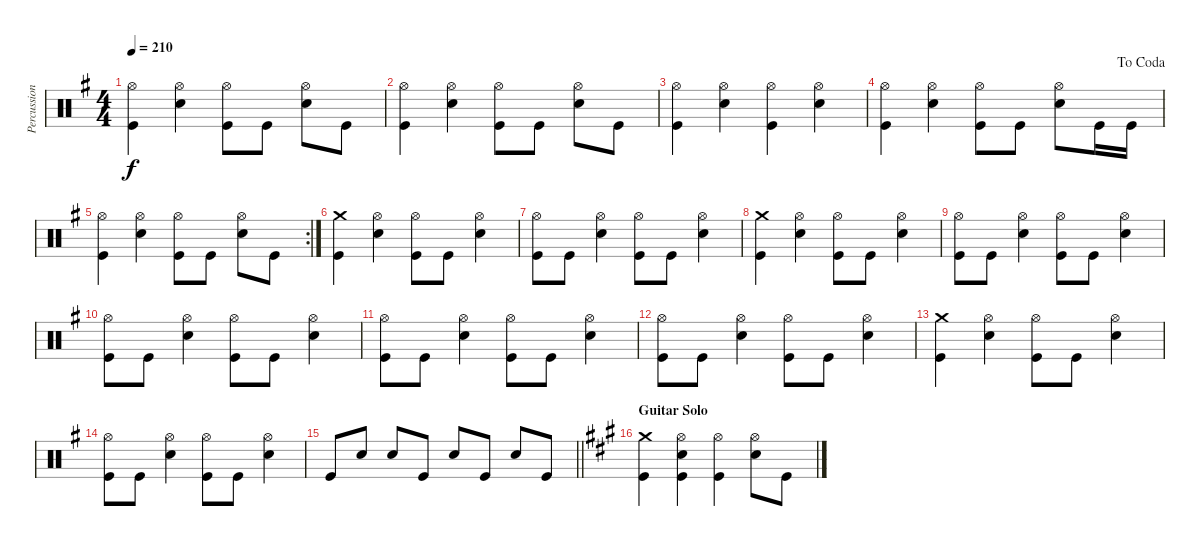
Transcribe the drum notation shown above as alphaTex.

\track ("Percussion" "Percussion") {instrument percussion}
\staff {score}
\articulation defaults
\ts (4 4)
\tempo 210
\clef neutral
\ks g
("Hi-Hat (open)" "Kick (hit)").4{dy f} ("Hi-Hat (open)" "Snare (hit) 2").4 ("Hi-Hat (open)" "Kick (hit)").8 "Kick (hit)".8 ("Hi-Hat (open)" "Snare (hit) 2").8 "Kick (hit)".8 |
("Hi-Hat (open)" "Kick (hit)").4 ("Hi-Hat (open)" "Snare (hit) 2").4 ("Hi-Hat (open)" "Kick (hit)").8 "Kick (hit)".8 ("Hi-Hat (open)" "Snare (hit) 2").8 "Kick (hit)".8 |
("Hi-Hat (open)" "Kick (hit)").4 ("Hi-Hat (open)" "Snare (hit) 2").4 ("Hi-Hat (open)" "Kick (hit)").4 ("Hi-Hat (open)" "Snare (hit) 2").4 |
\jump dacoda
("Hi-Hat (open)" "Kick (hit)").4 ("Hi-Hat (open)" "Snare (hit) 2").4 ("Hi-Hat (open)" "Kick (hit)").8 "Kick (hit)".8 ("Hi-Hat (open)" "Snare (hit) 2").8 "Kick (hit)".16 "Kick (hit)".16 |
\rc 2
("Hi-Hat (open)" "Kick (hit)").4 ("Hi-Hat (open)" "Snare (hit) 2").4 ("Hi-Hat (open)" "Kick (hit)").8 "Kick (hit)".8 ("Hi-Hat (open)" "Snare (hit) 2").8 "Kick (hit)".8 |
("Crash medium (hit)" "Kick (hit)").4 ("Hi-Hat (open)" "Snare (hit) 2").4 ("Hi-Hat (open)" "Kick (hit)").8 "Kick (hit)".8 ("Hi-Hat (open)" "Snare (hit) 2").4 |
("Hi-Hat (open)" "Kick (hit)").8 "Kick (hit)".8 ("Hi-Hat (open)" "Snare (hit) 2").4 ("Hi-Hat (open)" "Kick (hit)").8 "Kick (hit)".8 ("Hi-Hat (open)" "Snare (hit) 2").4 |
("Crash medium (hit)" "Kick (hit)").4 ("Hi-Hat (open)" "Snare (hit) 2").4 ("Hi-Hat (open)" "Kick (hit)").8 "Kick (hit)".8 ("Hi-Hat (open)" "Snare (hit) 2").4 |
("Hi-Hat (open)" "Kick (hit)").8 "Kick (hit)".8 ("Hi-Hat (open)" "Snare (hit) 2").4 ("Hi-Hat (open)" "Kick (hit)").8 "Kick (hit)".8 ("Hi-Hat (open)" "Snare (hit) 2").4 |
("Hi-Hat (open)" "Kick (hit)").8 "Kick (hit)".8 ("Hi-Hat (open)" "Snare (hit) 2").4 ("Hi-Hat (open)" "Kick (hit)").8 "Kick (hit)".8 ("Hi-Hat (open)" "Snare (hit) 2").4 |
("Hi-Hat (open)" "Kick (hit)").8 "Kick (hit)".8 ("Hi-Hat (open)" "Snare (hit) 2").4 ("Hi-Hat (open)" "Kick (hit)").8 "Kick (hit)".8 ("Hi-Hat (open)" "Snare (hit) 2").4 |
("Hi-Hat (open)" "Kick (hit)").8 "Kick (hit)".8 ("Hi-Hat (open)" "Snare (hit) 2").4 ("Hi-Hat (open)" "Kick (hit)").8 "Kick (hit)".8 ("Hi-Hat (open)" "Snare (hit) 2").4 |
("Crash medium (hit)" "Kick (hit)").4 ("Hi-Hat (open)" "Snare (hit) 2").4 ("Hi-Hat (open)" "Kick (hit)").8 "Kick (hit)".8 ("Hi-Hat (open)" "Snare (hit) 2").4 |
("Hi-Hat (open)" "Kick (hit)").8 "Kick (hit)".8 ("Hi-Hat (open)" "Snare (hit) 2").4 ("Hi-Hat (open)" "Kick (hit)").8 "Kick (hit)".8 ("Hi-Hat (open)" "Snare (hit) 2").4 |
\barLineRight lightlight "Kick (hit)".8 "Snare (hit) 2".8 "Snare (hit) 2".8 "Kick (hit)".8 "Snare (hit) 2".8 "Kick (hit)".8 "Snare (hit) 2".8 "Kick (hit)".8
|
\section ("" "Guitar Solo")
\ks a
("Crash medium (hit)" "Kick (hit)").4 ("Hi-Hat (open)" "Snare (hit) 2" "Kick (hit)").4 ("Hi-Hat (open)" "Kick (hit)").4 ("Hi-Hat (open)" "Snare (hit) 2").8 "Kick (hit)".8
